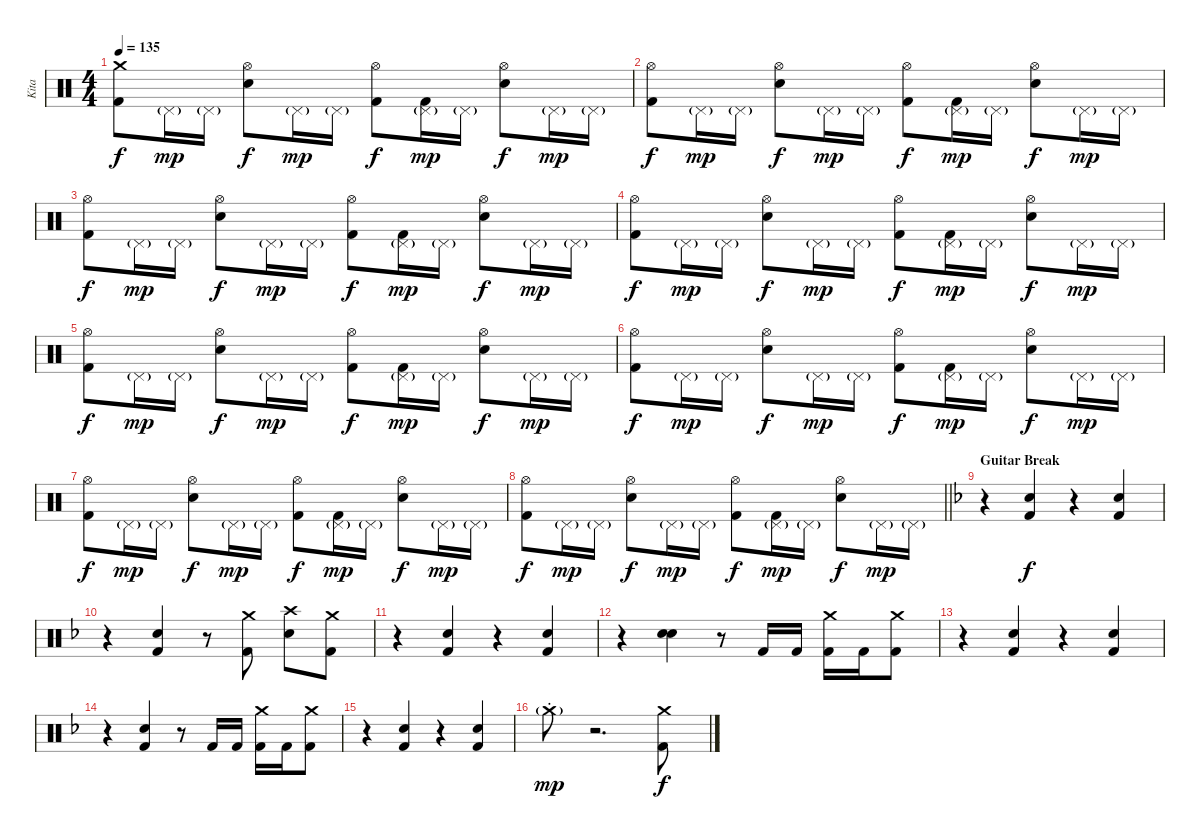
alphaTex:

\track ("Kita" "Kita") {instrument percussion}
\staff {score}
\articulation defaults
\ts (4 4)
\tempo 135
\clef neutral
\ks c
("Crash medium (hit)" "Kick (hit) 2").8{dy f} "Pedal Hi-Hat (hit)"{g}.16{dy mp} "Pedal Hi-Hat (hit)"{g}.16 ("Hi-Hat (open)" "Snare (hit) 2").8{dy f} "Pedal Hi-Hat (hit)"{g}.16{dy mp} "Pedal Hi-Hat (hit)"{g}.16 ("Hi-Hat (open)" "Kick (hit) 2").8{dy f} ("Pedal Hi-Hat (hit)"{g} "Kick (hit) 2").16{dy mp} "Pedal Hi-Hat (hit)"{g}.16 ("Hi-Hat (open)" "Snare (hit) 2").8{dy f} "Pedal Hi-Hat (hit)"{g}.16{dy mp} "Pedal Hi-Hat (hit)"{g}.16 |
("Hi-Hat (open)" "Kick (hit) 2").8{dy f} "Pedal Hi-Hat (hit)"{g}.16{dy mp} "Pedal Hi-Hat (hit)"{g}.16 ("Hi-Hat (open)" "Snare (hit) 2").8{dy f} "Pedal Hi-Hat (hit)"{g}.16{dy mp} "Pedal Hi-Hat (hit)"{g}.16 ("Hi-Hat (open)" "Kick (hit) 2").8{dy f} ("Pedal Hi-Hat (hit)"{g} "Kick (hit) 2").16{dy mp} "Pedal Hi-Hat (hit)"{g}.16 ("Hi-Hat (open)" "Snare (hit) 2").8{dy f} "Pedal Hi-Hat (hit)"{g}.16{dy mp} "Pedal Hi-Hat (hit)"{g}.16 |
("Hi-Hat (open)" "Kick (hit) 2").8{dy f} "Pedal Hi-Hat (hit)"{g}.16{dy mp} "Pedal Hi-Hat (hit)"{g}.16 ("Hi-Hat (open)" "Snare (hit) 2").8{dy f} "Pedal Hi-Hat (hit)"{g}.16{dy mp} "Pedal Hi-Hat (hit)"{g}.16 ("Hi-Hat (open)" "Kick (hit) 2").8{dy f} ("Pedal Hi-Hat (hit)"{g} "Kick (hit) 2").16{dy mp} "Pedal Hi-Hat (hit)"{g}.16 ("Hi-Hat (open)" "Snare (hit) 2").8{dy f} "Pedal Hi-Hat (hit)"{g}.16{dy mp} "Pedal Hi-Hat (hit)"{g}.16 |
("Hi-Hat (open)" "Kick (hit) 2").8{dy f} "Pedal Hi-Hat (hit)"{g}.16{dy mp} "Pedal Hi-Hat (hit)"{g}.16 ("Hi-Hat (open)" "Snare (hit) 2").8{dy f} "Pedal Hi-Hat (hit)"{g}.16{dy mp} "Pedal Hi-Hat (hit)"{g}.16 ("Hi-Hat (open)" "Kick (hit) 2").8{dy f} ("Pedal Hi-Hat (hit)"{g} "Kick (hit) 2").16{dy mp} "Pedal Hi-Hat (hit)"{g}.16 ("Hi-Hat (open)" "Snare (hit) 2").8{dy f} "Pedal Hi-Hat (hit)"{g}.16{dy mp} "Pedal Hi-Hat (hit)"{g}.16 |
("Hi-Hat (open)" "Kick (hit) 2").8{dy f} "Pedal Hi-Hat (hit)"{g}.16{dy mp} "Pedal Hi-Hat (hit)"{g}.16 ("Hi-Hat (open)" "Snare (hit) 2").8{dy f} "Pedal Hi-Hat (hit)"{g}.16{dy mp} "Pedal Hi-Hat (hit)"{g}.16 ("Hi-Hat (open)" "Kick (hit) 2").8{dy f} ("Pedal Hi-Hat (hit)"{g} "Kick (hit) 2").16{dy mp} "Pedal Hi-Hat (hit)"{g}.16 ("Hi-Hat (open)" "Snare (hit) 2").8{dy f} "Pedal Hi-Hat (hit)"{g}.16{dy mp} "Pedal Hi-Hat (hit)"{g}.16 |
("Hi-Hat (open)" "Kick (hit) 2").8{dy f} "Pedal Hi-Hat (hit)"{g}.16{dy mp} "Pedal Hi-Hat (hit)"{g}.16 ("Hi-Hat (open)" "Snare (hit) 2").8{dy f} "Pedal Hi-Hat (hit)"{g}.16{dy mp} "Pedal Hi-Hat (hit)"{g}.16 ("Hi-Hat (open)" "Kick (hit) 2").8{dy f} ("Pedal Hi-Hat (hit)"{g} "Kick (hit) 2").16{dy mp} "Pedal Hi-Hat (hit)"{g}.16 ("Hi-Hat (open)" "Snare (hit) 2").8{dy f} "Pedal Hi-Hat (hit)"{g}.16{dy mp} "Pedal Hi-Hat (hit)"{g}.16 |
("Hi-Hat (open)" "Kick (hit) 2").8{dy f} "Pedal Hi-Hat (hit)"{g}.16{dy mp} "Pedal Hi-Hat (hit)"{g}.16 ("Hi-Hat (open)" "Snare (hit) 2").8{dy f} "Pedal Hi-Hat (hit)"{g}.16{dy mp} "Pedal Hi-Hat (hit)"{g}.16 ("Hi-Hat (open)" "Kick (hit) 2").8{dy f} ("Pedal Hi-Hat (hit)"{g} "Kick (hit) 2").16{dy mp} "Pedal Hi-Hat (hit)"{g}.16 ("Hi-Hat (open)" "Snare (hit) 2").8{dy f} "Pedal Hi-Hat (hit)"{g}.16{dy mp} "Pedal Hi-Hat (hit)"{g}.16 |
\barLineRight lightlight
("Hi-Hat (open)" "Kick (hit) 2").8{dy f} "Pedal Hi-Hat (hit)"{g}.16{dy mp} "Pedal Hi-Hat (hit)"{g}.16 ("Hi-Hat (open)" "Snare (hit) 2").8{dy f} "Pedal Hi-Hat (hit)"{g}.16{dy mp} "Pedal Hi-Hat (hit)"{g}.16 ("Hi-Hat (open)" "Kick (hit) 2").8{dy f} ("Pedal Hi-Hat (hit)"{g} "Kick (hit) 2").16{dy mp} "Pedal Hi-Hat (hit)"{g}.16 ("Hi-Hat (open)" "Snare (hit) 2").8{dy f} "Pedal Hi-Hat (hit)"{g}.16{dy mp} "Pedal Hi-Hat (hit)"{g}.16 |
\section ("" "Guitar Break")
\ks f
r.4 ("Snare (hit) 2" "Kick (hit) 2").4{dy f} r.4 ("Snare (hit) 2" "Kick (hit) 2").4 |
r.4 ("Snare (hit) 2" "Kick (hit) 2").4 r.8 ("Crash medium (hit)" "Kick (hit) 2").8 ("Crash high (hit)" "Snare (hit) 2").8 ("Crash medium (hit)" "Kick (hit) 2").8 |
r.4 ("Snare (hit) 2" "Kick (hit) 2").4 r.4 ("Snare (hit) 2" "Kick (hit) 2").4 |
r.4 ("Snare (hit) 2" "Snare (hit) 2").4 r.8 "Kick (hit) 2".16 "Kick (hit) 2".16 ("Crash medium (hit)" "Kick (hit) 2").16 "Kick (hit) 2".16 ("Crash medium (hit)" "Kick (hit) 2").8 |
r.4 ("Snare (hit) 2" "Kick (hit) 2").4 r.4 ("Snare (hit) 2" "Kick (hit) 2").4 |
r.4 ("Snare (hit) 2" "Kick (hit) 2").4 r.8 "Kick (hit) 2".16 "Kick (hit) 2".16 ("Crash medium (hit)" "Kick (hit) 2").16 "Kick (hit) 2".16 ("Crash medium (hit)" "Kick (hit) 2").8 |
r.4 ("Snare (hit) 2" "Kick (hit) 2").4 r.4 ("Snare (hit) 2" "Kick (hit) 2").4 |
"Crash medium (hit)"{g st}.8{dy mp} r.2{d} ("Crash medium (hit)" "Kick (hit) 2").8{dy f}
